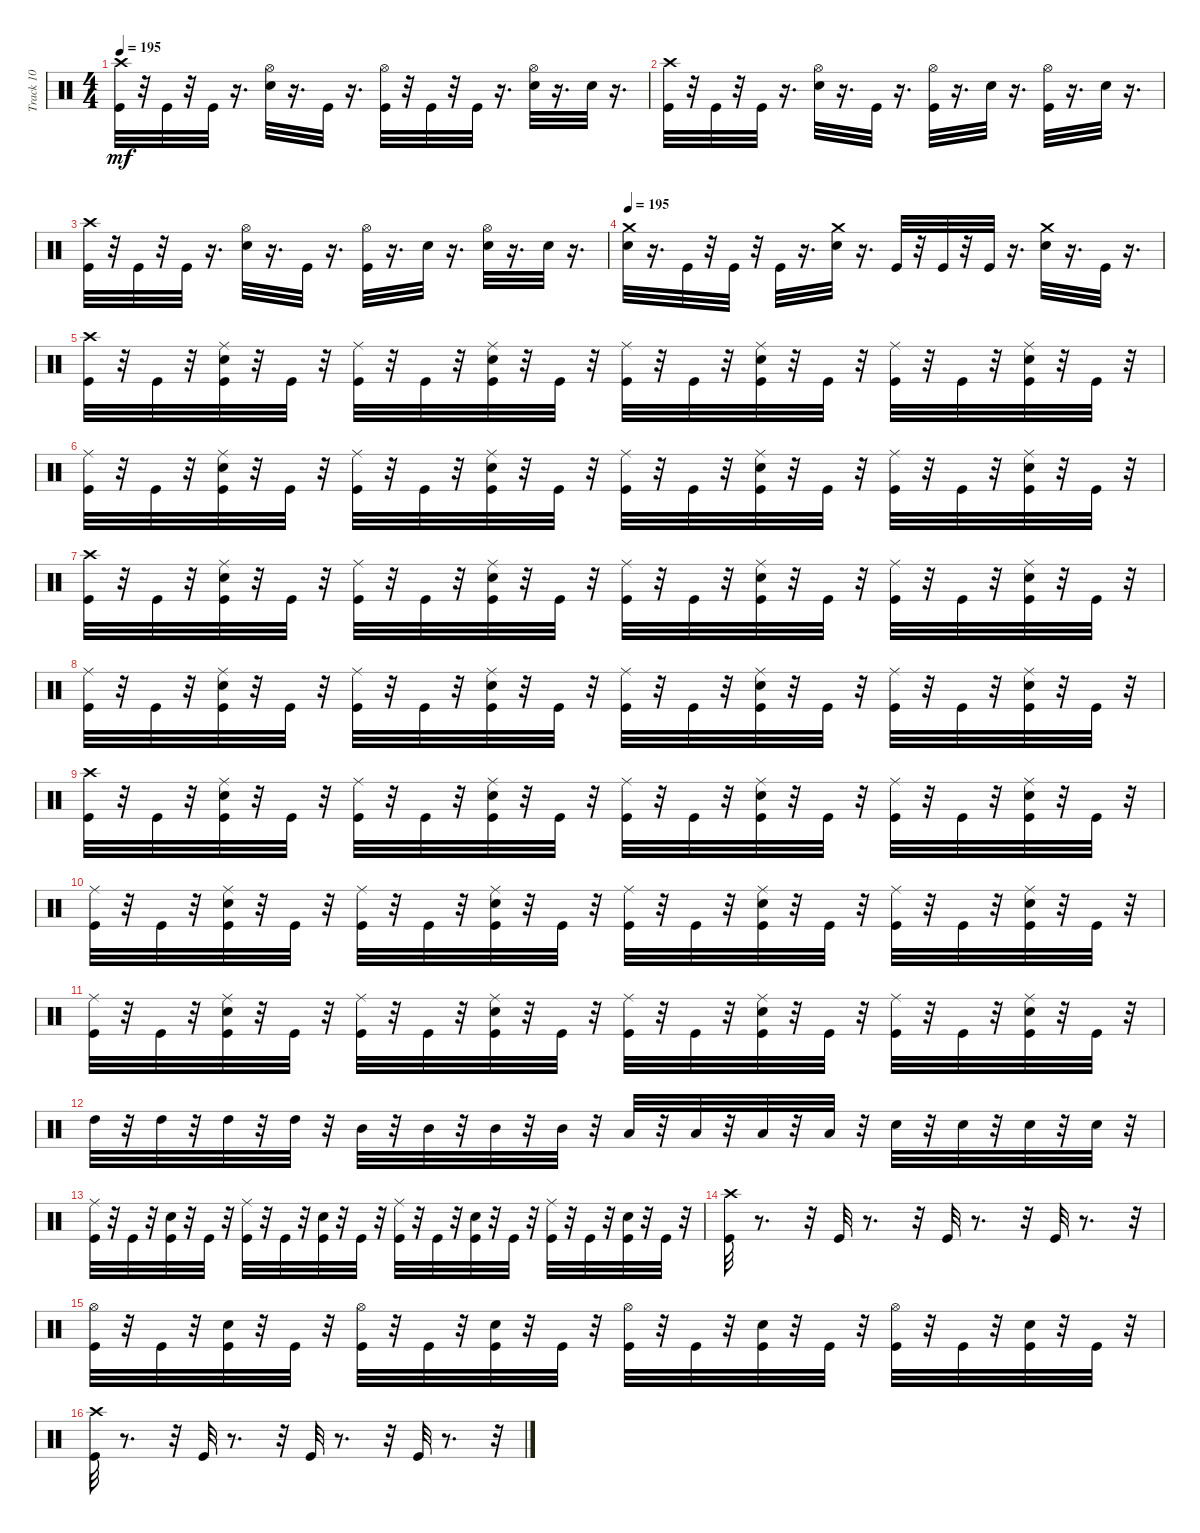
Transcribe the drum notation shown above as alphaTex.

\track ("Track 10" "Track 10") {instrument percussion}
\staff {score}
\articulation defaults
\ts (4 4)
\tempo 195
\clef neutral
\ks c
("Crash high (hit)" "Kick (hit)").32{dy mf} r.32 "Kick (hit)".32 r.32 "Kick (hit)".32 r.16{d} ("Electric Snare (hit)" "Hi-Hat (open)").32 r.16{d} "Kick (hit)".32 r.16{d} ("Kick (hit)" "Hi-Hat (open)").32 r.32 "Kick (hit)".32 r.32 "Kick (hit)".32 r.16{d} ("Electric Snare (hit)" "Hi-Hat (open)").32 r.16{d} "Electric Snare (hit)".32 r.16{d} |
("Crash high (hit)" "Kick (hit)").32 r.32 "Kick (hit)".32 r.32 "Kick (hit)".32 r.16{d} ("Electric Snare (hit)" "Hi-Hat (open)").32 r.16{d} "Kick (hit)".32 r.16{d} ("Kick (hit)" "Hi-Hat (open)").32 r.16{d} "Electric Snare (hit)".32 r.16{d} ("Kick (hit)" "Hi-Hat (open)").32 r.16{d} "Electric Snare (hit)".32 r.16{d} |
("Crash high (hit)" "Kick (hit)").32 r.32 "Kick (hit)".32 r.32 "Kick (hit)".32 r.16{d} ("Electric Snare (hit)" "Hi-Hat (open)").32 r.16{d} "Kick (hit)".32 r.16{d} ("Kick (hit)" "Hi-Hat (open)").32 r.16{d} "Electric Snare (hit)".32 r.16{d} ("Electric Snare (hit)" "Hi-Hat (open)").32 r.16{d} "Electric Snare (hit)".32 r.16{d} |
\tempo 195
("Crash medium (hit)" "Electric Snare (hit)").32 r.16{d} "Kick (hit)".32 r.32 "Kick (hit)".32 r.32 "Kick (hit)".32 r.16{d} ("Crash medium (hit)" "Electric Snare (hit)").32 r.16{d} "Kick (hit)".32 r.32 "Kick (hit)".32 r.32 "Kick (hit)".32 r.16{d} ("Crash medium (hit)" "Electric Snare (hit)").32 r.16{d} "Kick (hit)".32 r.16{d} |
("Crash high (hit)" "Kick (hit)").32 r.32 "Kick (hit)".32 r.32 ("Electric Snare (hit)" "Kick (hit)" "Ride (middle)").32 r.32 "Kick (hit)".32 r.32 ("Ride (middle)" "Kick (hit)").32 r.32 "Kick (hit)".32 r.32 ("Ride (middle)" "Electric Snare (hit)" "Kick (hit)").32 r.32 "Kick (hit)".32 r.32 ("Ride (middle)" "Kick (hit)").32 r.32 "Kick (hit)".32 r.32 ("Ride (middle)" "Kick (hit)" "Electric Snare (hit)").32 r.32 "Kick (hit)".32 r.32 ("Ride (middle)" "Kick (hit)").32 r.32 "Kick (hit)".32 r.32 ("Ride (middle)" "Electric Snare (hit)" "Kick (hit)").32 r.32 "Kick (hit)".32 r.32 |
("Ride (middle)" "Kick (hit)").32 r.32 "Kick (hit)".32 r.32 ("Electric Snare (hit)" "Kick (hit)" "Ride (middle)").32 r.32 "Kick (hit)".32 r.32 ("Ride (middle)" "Kick (hit)").32 r.32 "Kick (hit)".32 r.32 ("Ride (middle)" "Electric Snare (hit)" "Kick (hit)").32 r.32 "Kick (hit)".32 r.32 ("Ride (middle)" "Kick (hit)").32 r.32 "Kick (hit)".32 r.32 ("Ride (middle)" "Kick (hit)" "Electric Snare (hit)").32 r.32 "Kick (hit)".32 r.32 ("Ride (middle)" "Kick (hit)").32 r.32 "Kick (hit)".32 r.32 ("Ride (middle)" "Electric Snare (hit)" "Kick (hit)").32 r.32 "Kick (hit)".32 r.32 |
("Crash high (hit)" "Kick (hit)").32 r.32 "Kick (hit)".32 r.32 ("Electric Snare (hit)" "Kick (hit)" "Ride (middle)").32 r.32 "Kick (hit)".32 r.32 ("Ride (middle)" "Kick (hit)").32 r.32 "Kick (hit)".32 r.32 ("Ride (middle)" "Electric Snare (hit)" "Kick (hit)").32 r.32 "Kick (hit)".32 r.32 ("Ride (middle)" "Kick (hit)").32 r.32 "Kick (hit)".32 r.32 ("Ride (middle)" "Kick (hit)" "Electric Snare (hit)").32 r.32 "Kick (hit)".32 r.32 ("Ride (middle)" "Kick (hit)").32 r.32 "Kick (hit)".32 r.32 ("Ride (middle)" "Electric Snare (hit)" "Kick (hit)").32 r.32 "Kick (hit)".32 r.32 |
("Ride (middle)" "Kick (hit)").32 r.32 "Kick (hit)".32 r.32 ("Electric Snare (hit)" "Kick (hit)" "Ride (middle)").32 r.32 "Kick (hit)".32 r.32 ("Ride (middle)" "Kick (hit)").32 r.32 "Kick (hit)".32 r.32 ("Ride (middle)" "Electric Snare (hit)" "Kick (hit)").32 r.32 "Kick (hit)".32 r.32 ("Ride (middle)" "Kick (hit)").32 r.32 "Kick (hit)".32 r.32 ("Ride (middle)" "Kick (hit)" "Electric Snare (hit)").32 r.32 "Kick (hit)".32 r.32 ("Ride (middle)" "Kick (hit)").32 r.32 "Kick (hit)".32 r.32 ("Ride (middle)" "Electric Snare (hit)" "Kick (hit)").32 r.32 "Kick (hit)".32 r.32 |
("Crash high (hit)" "Kick (hit)").32 r.32 "Kick (hit)".32 r.32 ("Electric Snare (hit)" "Kick (hit)" "Ride (middle)").32 r.32 "Kick (hit)".32 r.32 ("Ride (middle)" "Kick (hit)").32 r.32 "Kick (hit)".32 r.32 ("Ride (middle)" "Electric Snare (hit)" "Kick (hit)").32 r.32 "Kick (hit)".32 r.32 ("Ride (middle)" "Kick (hit)").32 r.32 "Kick (hit)".32 r.32 ("Ride (middle)" "Kick (hit)" "Electric Snare (hit)").32 r.32 "Kick (hit)".32 r.32 ("Ride (middle)" "Kick (hit)").32 r.32 "Kick (hit)".32 r.32 ("Ride (middle)" "Electric Snare (hit)" "Kick (hit)").32 r.32 "Kick (hit)".32 r.32 |
("Ride (middle)" "Kick (hit)").32 r.32 "Kick (hit)".32 r.32 ("Electric Snare (hit)" "Kick (hit)" "Ride (middle)").32 r.32 "Kick (hit)".32 r.32 ("Ride (middle)" "Kick (hit)").32 r.32 "Kick (hit)".32 r.32 ("Ride (middle)" "Electric Snare (hit)" "Kick (hit)").32 r.32 "Kick (hit)".32 r.32 ("Ride (middle)" "Kick (hit)").32 r.32 "Kick (hit)".32 r.32 ("Ride (middle)" "Kick (hit)" "Electric Snare (hit)").32 r.32 "Kick (hit)".32 r.32 ("Ride (middle)" "Kick (hit)").32 r.32 "Kick (hit)".32 r.32 ("Ride (middle)" "Electric Snare (hit)" "Kick (hit)").32 r.32 "Kick (hit)".32 r.32 |
("Ride (middle)" "Kick (hit)").32 r.32 "Kick (hit)".32 r.32 ("Electric Snare (hit)" "Kick (hit)" "Ride (middle)").32 r.32 "Kick (hit)".32 r.32 ("Ride (middle)" "Kick (hit)").32 r.32 "Kick (hit)".32 r.32 ("Ride (middle)" "Electric Snare (hit)" "Kick (hit)").32 r.32 "Kick (hit)".32 r.32 ("Ride (middle)" "Kick (hit)").32 r.32 "Kick (hit)".32 r.32 ("Ride (middle)" "Kick (hit)" "Electric Snare (hit)").32 r.32 "Kick (hit)".32 r.32 ("Ride (middle)" "Kick (hit)").32 r.32 "Kick (hit)".32 r.32 ("Ride (middle)" "Electric Snare (hit)" "Kick (hit)").32 r.32 "Kick (hit)".32 r.32 |
"High Tom (hit)".32 r.32 "High Tom (hit)".32 r.32 "High Tom (hit)".32 r.32 "High Tom (hit)".32 r.32 "Mid Tom (hit)".32 r.32 "Mid Tom (hit)".32 r.32 "Mid Tom (hit)".32 r.32 "Mid Tom (hit)".32 r.32 "Low Tom (hit)".32 r.32 "Low Tom (hit)".32 r.32 "Low Tom (hit)".32 r.32 "Low Tom (hit)".32 r.32 "Electric Snare (hit)".32 r.32 "Electric Snare (hit)".32 r.32 "Electric Snare (hit)".32 r.32 "Electric Snare (hit)".32 r.32 |
("Kick (hit)" "Ride (middle)").32 r.32 "Kick (hit)".32 r.32 ("Kick (hit)" "Electric Snare (hit)").32 r.32 "Kick (hit)".32 r.32 ("Ride (middle)" "Kick (hit)").32 r.32 "Kick (hit)".32 r.32 ("Electric Snare (hit)" "Kick (hit)").32 r.32 "Kick (hit)".32 r.32 ("Kick (hit)" "Ride (middle)").32 r.32 "Kick (hit)".32 r.32 ("Electric Snare (hit)" "Kick (hit)").32 r.32 "Kick (hit)".32 r.32 ("Kick (hit)" "Ride (middle)").32 r.32 "Kick (hit)".32 r.32 ("Kick (hit)" "Electric Snare (hit)").32 r.32 "Kick (hit)".32 r.32 |
("Crash high (hit)" "Kick (hit)").32 r.8{d} r.32 "Kick (hit)".32 r.8{d} r.32 "Kick (hit)".32 r.8{d} r.32 "Kick (hit)".32 r.8{d} r.32 |
("Hi-Hat (open)" "Kick (hit)").32 r.32 "Kick (hit)".32 r.32 ("Electric Snare (hit)" "Kick (hit)").32 r.32 "Kick (hit)".32 r.32 ("Hi-Hat (open)" "Kick (hit)").32 r.32 "Kick (hit)".32 r.32 ("Electric Snare (hit)" "Kick (hit)").32 r.32 "Kick (hit)".32 r.32 ("Hi-Hat (open)" "Kick (hit)").32 r.32 "Kick (hit)".32 r.32 ("Electric Snare (hit)" "Kick (hit)").32 r.32 "Kick (hit)".32 r.32 ("Hi-Hat (open)" "Kick (hit)").32 r.32 "Kick (hit)".32 r.32 ("Electric Snare (hit)" "Kick (hit)").32 r.32 "Kick (hit)".32 r.32 |
("Crash high (hit)" "Kick (hit)").32 r.8{d} r.32 "Kick (hit)".32 r.8{d} r.32 "Kick (hit)".32 r.8{d} r.32 "Kick (hit)".32 r.8{d} r.32
